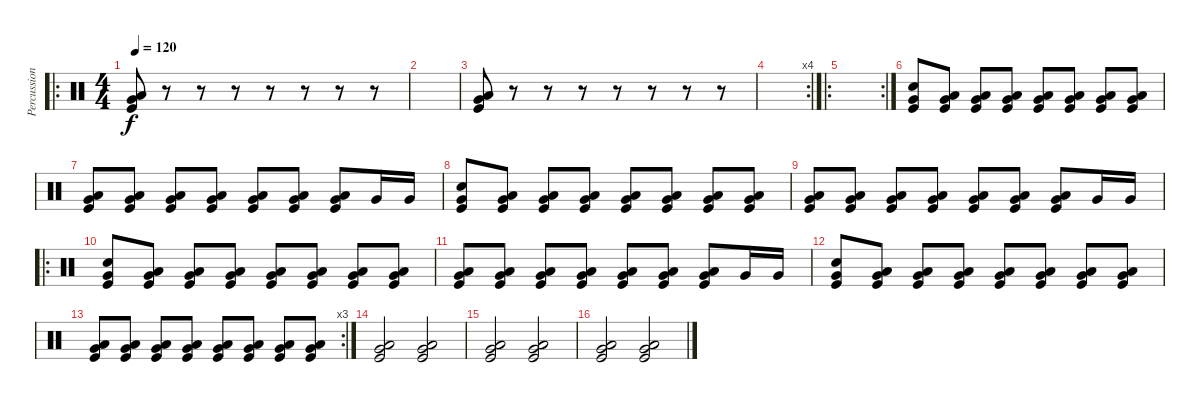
\track ("Percussion" "Percussion") {instrument percussion}
\staff {score}
\articulation defaults
\ro
\ts (4 4)
\tempo 120
\clef neutral
\ks c
("Kick (hit)" "Very Low Tom (hit)" "Low Tom (hit)").8{dy f} r.8 r.8 r.8 r.8 r.8 r.8 r.8 |
|
("Kick (hit)" "Very Low Tom (hit)" "Low Tom (hit)").8 r.8 r.8 r.8 r.8 r.8 r.8 r.8 |
\rc 4
|
\ro
\rc 2
|
("Kick (hit)" "Very Low Tom (hit)" "Snare (hit) 2").8 ("Kick (hit)" "Very Low Tom (hit)" "Low Tom (hit)").8 ("Kick (hit)" "Very Low Tom (hit)" "Low Tom (hit)").8 ("Kick (hit)" "Very Low Tom (hit)" "Low Tom (hit)").8 ("Kick (hit)" "Very Low Tom (hit)" "Low Tom (hit)").8 ("Kick (hit)" "Very Low Tom (hit)" "Low Tom (hit)").8 ("Kick (hit)" "Very Low Tom (hit)" "Low Tom (hit)").8 ("Kick (hit)" "Very Low Tom (hit)" "Low Tom (hit)").8 |
("Kick (hit)" "Very Low Tom (hit)" "Low Tom (hit)").8 ("Kick (hit)" "Very Low Tom (hit)" "Low Tom (hit)").8 ("Kick (hit)" "Very Low Tom (hit)" "Low Tom (hit)").8 ("Kick (hit)" "Very Low Tom (hit)" "Low Tom (hit)").8 ("Kick (hit)" "Very Low Tom (hit)" "Low Tom (hit)").8 ("Kick (hit)" "Very Low Tom (hit)" "Low Tom (hit)").8 ("Kick (hit)" "Very Low Tom (hit)" "Low Tom (hit)").8 "Very Low Tom (hit)".16 "Very Low Tom (hit)".16 |
("Kick (hit)" "Very Low Tom (hit)" "Snare (hit) 2").8 ("Kick (hit)" "Very Low Tom (hit)" "Low Tom (hit)").8 ("Kick (hit)" "Very Low Tom (hit)" "Low Tom (hit)").8 ("Kick (hit)" "Very Low Tom (hit)" "Low Tom (hit)").8 ("Kick (hit)" "Very Low Tom (hit)" "Low Tom (hit)").8 ("Kick (hit)" "Very Low Tom (hit)" "Low Tom (hit)").8 ("Kick (hit)" "Very Low Tom (hit)" "Low Tom (hit)").8 ("Kick (hit)" "Very Low Tom (hit)" "Low Tom (hit)").8 |
("Kick (hit)" "Very Low Tom (hit)" "Low Tom (hit)").8 ("Kick (hit)" "Very Low Tom (hit)" "Low Tom (hit)").8 ("Kick (hit)" "Very Low Tom (hit)" "Low Tom (hit)").8 ("Kick (hit)" "Very Low Tom (hit)" "Low Tom (hit)").8 ("Kick (hit)" "Very Low Tom (hit)" "Low Tom (hit)").8 ("Kick (hit)" "Very Low Tom (hit)" "Low Tom (hit)").8 ("Kick (hit)" "Very Low Tom (hit)" "Low Tom (hit)").8 "Very Low Tom (hit)".16 "Very Low Tom (hit)".16 |
\ro
("Kick (hit)" "Very Low Tom (hit)" "Snare (hit) 2").8 ("Kick (hit)" "Very Low Tom (hit)" "Low Tom (hit)").8 ("Kick (hit)" "Very Low Tom (hit)" "Low Tom (hit)").8 ("Kick (hit)" "Very Low Tom (hit)" "Low Tom (hit)").8 ("Kick (hit)" "Very Low Tom (hit)" "Low Tom (hit)").8 ("Kick (hit)" "Very Low Tom (hit)" "Low Tom (hit)").8 ("Kick (hit)" "Very Low Tom (hit)" "Low Tom (hit)").8 ("Kick (hit)" "Very Low Tom (hit)" "Low Tom (hit)").8 |
("Kick (hit)" "Very Low Tom (hit)" "Low Tom (hit)").8 ("Kick (hit)" "Very Low Tom (hit)" "Low Tom (hit)").8 ("Kick (hit)" "Very Low Tom (hit)" "Low Tom (hit)").8 ("Kick (hit)" "Very Low Tom (hit)" "Low Tom (hit)").8 ("Kick (hit)" "Very Low Tom (hit)" "Low Tom (hit)").8 ("Kick (hit)" "Very Low Tom (hit)" "Low Tom (hit)").8 ("Kick (hit)" "Very Low Tom (hit)" "Low Tom (hit)").8 "Very Low Tom (hit)".16 "Very Low Tom (hit)".16 |
("Kick (hit)" "Very Low Tom (hit)" "Snare (hit) 2").8 ("Kick (hit)" "Very Low Tom (hit)" "Low Tom (hit)").8 ("Kick (hit)" "Very Low Tom (hit)" "Low Tom (hit)").8 ("Kick (hit)" "Very Low Tom (hit)" "Low Tom (hit)").8 ("Kick (hit)" "Very Low Tom (hit)" "Low Tom (hit)").8 ("Kick (hit)" "Very Low Tom (hit)" "Low Tom (hit)").8 ("Kick (hit)" "Very Low Tom (hit)" "Low Tom (hit)").8 ("Kick (hit)" "Very Low Tom (hit)" "Low Tom (hit)").8 |
\rc 3
("Kick (hit)" "Very Low Tom (hit)" "Low Tom (hit)").8 ("Kick (hit)" "Very Low Tom (hit)" "Low Tom (hit)").8 ("Kick (hit)" "Very Low Tom (hit)" "Low Tom (hit)").8 ("Kick (hit)" "Very Low Tom (hit)" "Low Tom (hit)").8 ("Kick (hit)" "Very Low Tom (hit)" "Low Tom (hit)").8 ("Kick (hit)" "Very Low Tom (hit)" "Low Tom (hit)").8 ("Kick (hit)" "Very Low Tom (hit)" "Low Tom (hit)").8 ("Kick (hit)" "Very Low Tom (hit)" "Low Tom (hit)").8 |
("Kick (hit)" "Very Low Tom (hit)" "Low Tom (hit)").2 ("Kick (hit)" "Very Low Tom (hit)" "Low Tom (hit)").2 |
("Kick (hit)" "Very Low Tom (hit)" "Low Tom (hit)").2 ("Kick (hit)" "Very Low Tom (hit)" "Low Tom (hit)").2 |
("Kick (hit)" "Very Low Tom (hit)" "Low Tom (hit)").2 ("Kick (hit)" "Very Low Tom (hit)" "Low Tom (hit)").2
